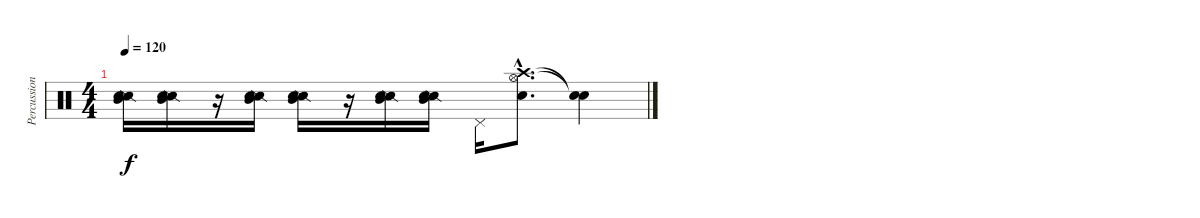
\track ("Percussion" "Percussion") {instrument percussion}
\staff {score}
\articulation defaults
\ts (4 4)
\tempo 120
\clef neutral
\ks c
("Snare (side stick) 2" "Mid Tom (hit)" "Snare (hit) 2").16{dy f} ("Snare (side stick) 2" "Mid Tom (hit)" "Snare (hit) 2").16 r.16 ("Snare (side stick) 2" "Mid Tom (hit)" "Snare (hit) 2").16 ("Snare (side stick) 2" "Mid Tom (hit)" "Snare (hit) 2").16 r.16 ("Snare (side stick) 2" "Mid Tom (hit)" "Snare (hit) 2").16 ("Snare (side stick) 2" "Mid Tom (hit)" "Snare (hit) 2").16 "Pedal Hi-Hat (hit)".16 ("Hi-Hat (open)"{hac} "Crash high (hit)"{hac} "Snare (hit) 2"{hac}).8{d} ("Snare (hit)"{t} "Snare (hit)"{t}).4
